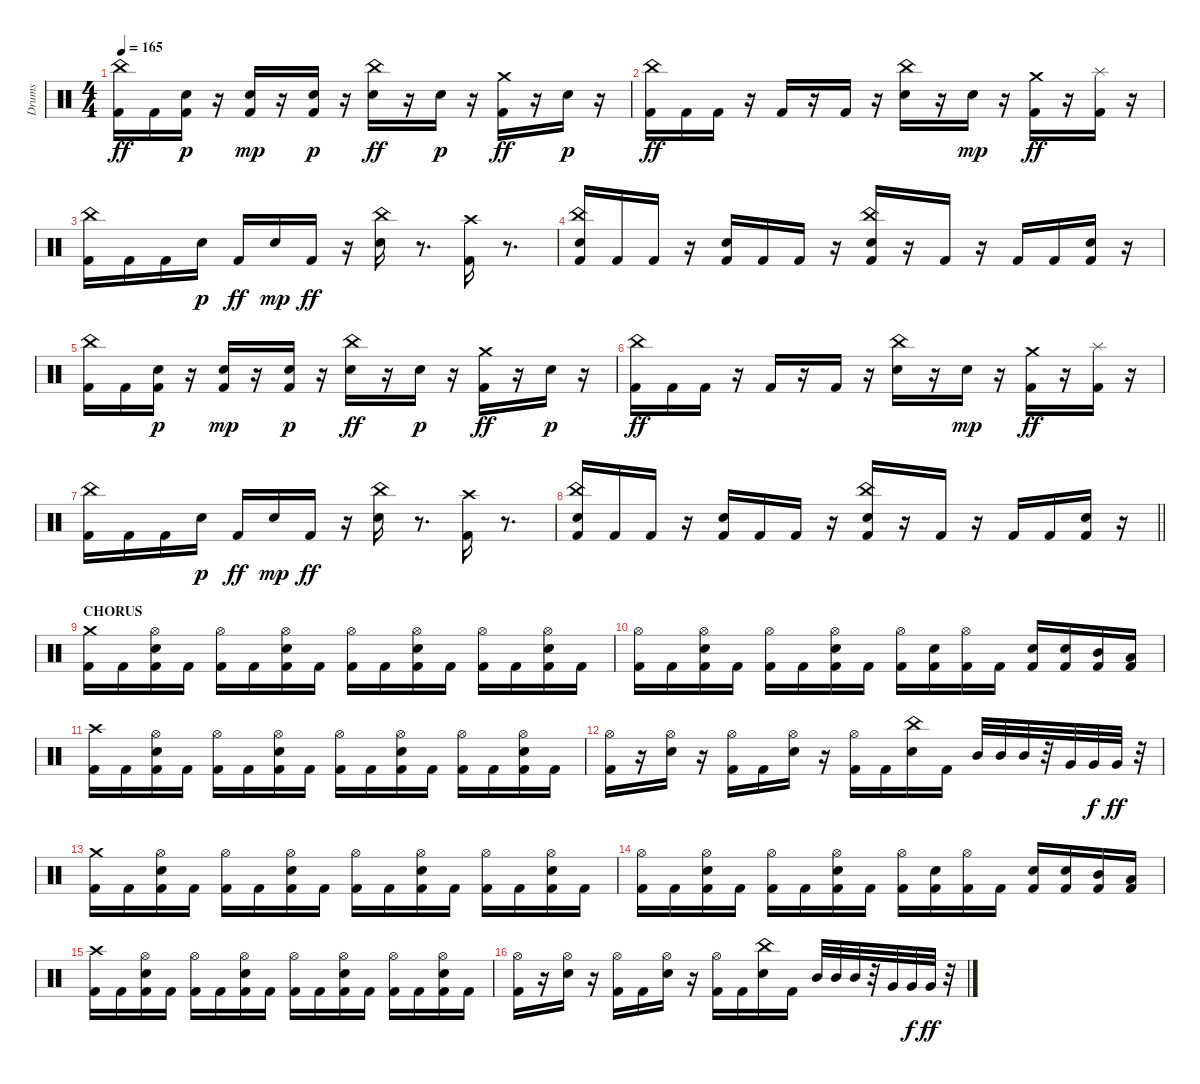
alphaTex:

\track ("Drums" "Drums") {instrument percussion}
\staff {score}
\articulation defaults
\ts (4 4)
\tempo 165
\clef neutral
\ks c
("Kick (hit) 2" "China (hit)").16{dy ff} "Kick (hit) 2".16 ("Kick (hit) 2" "Snare (hit) 2").16{dy p} r.16 ("Kick (hit) 2" "Snare (hit) 2").16{dy mp} r.16 ("Kick (hit) 2" "Snare (hit) 2").16{dy p} r.16 ("Snare (hit) 2" "China (hit)").16{dy ff} r.16 "Snare (hit) 2".16{dy p} r.16 ("Kick (hit) 2" "Crash medium (hit)").16{dy ff} r.16 "Snare (hit) 2".16{dy p} r.16 |
("Kick (hit) 2" "China (hit)").16{dy ff} "Kick (hit) 2".16 "Kick (hit) 2".16 r.16 "Kick (hit) 2".16 r.16 "Kick (hit) 2".16 r.16 ("Snare (hit) 2" "China (hit)").16 r.16 "Snare (hit) 2".16{dy mp} r.16 ("Kick (hit) 2" "Crash medium (hit)").16{dy ff} r.16 ("Kick (hit) 2" "Splash (hit)").16 r.16 |
("Kick (hit) 2" "China (hit)").16 "Kick (hit) 2".16 "Kick (hit) 2".16 "Snare (hit) 2".16{dy p} "Kick (hit) 2".16{dy ff} "Snare (hit) 2".16{dy mp} "Kick (hit) 2".16{dy ff} r.16 ("Snare (hit) 2" "China (hit)").16 r.8{d} ("Kick (hit) 2" "Crash high (hit)").16 r.8{d} |
("Kick (hit) 2" "Snare (hit) 2" "China (hit)").16 "Kick (hit) 2".16 "Kick (hit) 2".16 r.16 ("Kick (hit) 2" "Snare (hit) 2").16 "Kick (hit) 2".16 "Kick (hit) 2".16 r.16 ("Kick (hit) 2" "Snare (hit) 2" "China (hit)").16 r.16 "Kick (hit) 2".16 r.16 "Kick (hit) 2".16 "Kick (hit) 2".16 ("Kick (hit) 2" "Snare (hit) 2").16 r.16 |
("Kick (hit) 2" "China (hit)").16 "Kick (hit) 2".16 ("Kick (hit) 2" "Snare (hit) 2").16{dy p} r.16 ("Kick (hit) 2" "Snare (hit) 2").16{dy mp} r.16 ("Kick (hit) 2" "Snare (hit) 2").16{dy p} r.16 ("Snare (hit) 2" "China (hit)").16{dy ff} r.16 "Snare (hit) 2".16{dy p} r.16 ("Kick (hit) 2" "Crash medium (hit)").16{dy ff} r.16 "Snare (hit) 2".16{dy p} r.16 |
("Kick (hit) 2" "China (hit)").16{dy ff} "Kick (hit) 2".16 "Kick (hit) 2".16 r.16 "Kick (hit) 2".16 r.16 "Kick (hit) 2".16 r.16 ("Snare (hit) 2" "China (hit)").16 r.16 "Snare (hit) 2".16{dy mp} r.16 ("Kick (hit) 2" "Crash medium (hit)").16{dy ff} r.16 ("Kick (hit) 2" "Splash (hit)").16 r.16 |
("Kick (hit) 2" "China (hit)").16 "Kick (hit) 2".16 "Kick (hit) 2".16 "Snare (hit) 2".16{dy p} "Kick (hit) 2".16{dy ff} "Snare (hit) 2".16{dy mp} "Kick (hit) 2".16{dy ff} r.16 ("Snare (hit) 2" "China (hit)").16 r.8{d} ("Kick (hit) 2" "Crash high (hit)").16 r.8{d} |
\barLineRight lightlight
("Kick (hit) 2" "Snare (hit) 2" "China (hit)").16 "Kick (hit) 2".16 "Kick (hit) 2".16 r.16 ("Kick (hit) 2" "Snare (hit) 2").16 "Kick (hit) 2".16 "Kick (hit) 2".16 r.16 ("Kick (hit) 2" "Snare (hit) 2" "China (hit)").16 r.16 "Kick (hit) 2".16 r.16 "Kick (hit) 2".16 "Kick (hit) 2".16 ("Kick (hit) 2" "Snare (hit) 2").16 r.16 |
\section ("" "CHORUS")
("Kick (hit) 2" "Crash medium (hit)").16 "Kick (hit) 2".16 ("Kick (hit) 2" "Snare (hit) 2" "Hi-Hat (open)").16 "Kick (hit) 2".16 ("Kick (hit) 2" "Hi-Hat (open)").16 "Kick (hit) 2".16 ("Kick (hit) 2" "Snare (hit) 2" "Hi-Hat (open)").16 "Kick (hit) 2".16 ("Kick (hit) 2" "Hi-Hat (open)").16 "Kick (hit) 2".16 ("Kick (hit) 2" "Snare (hit) 2" "Hi-Hat (open)").16 "Kick (hit) 2".16 ("Kick (hit) 2" "Hi-Hat (open)").16 "Kick (hit) 2".16 ("Kick (hit) 2" "Snare (hit) 2" "Hi-Hat (open)").16 "Kick (hit) 2".16 |
("Kick (hit) 2" "Hi-Hat (open)").16 "Kick (hit) 2".16 ("Kick (hit) 2" "Snare (hit) 2" "Hi-Hat (open)").16 "Kick (hit) 2".16 ("Kick (hit) 2" "Hi-Hat (open)").16 "Kick (hit) 2".16 ("Kick (hit) 2" "Snare (hit) 2" "Hi-Hat (open)").16 "Kick (hit) 2".16 ("Kick (hit) 2" "Hi-Hat (open)").16 ("Kick (hit) 2" "Snare (hit) 2").16 ("Kick (hit) 2" "Hi-Hat (open)").16 "Kick (hit) 2".16 ("Kick (hit) 2" "Snare (hit) 2").16 ("Kick (hit) 2" "Snare (hit) 2").16 ("Kick (hit) 2" "Mid Tom (hit)").16 ("Kick (hit) 2" "Low Tom (hit)").16 |
("Kick (hit) 2" "Crash high (hit)").16 "Kick (hit) 2".16 ("Kick (hit) 2" "Snare (hit) 2" "Hi-Hat (open)").16 "Kick (hit) 2".16 ("Kick (hit) 2" "Hi-Hat (open)").16 "Kick (hit) 2".16 ("Kick (hit) 2" "Snare (hit) 2" "Hi-Hat (open)").16 "Kick (hit) 2".16 ("Kick (hit) 2" "Hi-Hat (open)").16 "Kick (hit) 2".16 ("Kick (hit) 2" "Snare (hit) 2" "Hi-Hat (open)").16 "Kick (hit) 2".16 ("Kick (hit) 2" "Hi-Hat (open)").16 "Kick (hit) 2".16 ("Kick (hit) 2" "Snare (hit) 2" "Hi-Hat (open)").16 "Kick (hit) 2".16 |
("Kick (hit) 2" "Hi-Hat (open)").16 r.16 ("Snare (hit) 2" "Hi-Hat (open)").16 r.16 ("Kick (hit) 2" "Hi-Hat (open)").16 "Kick (hit) 2".16 ("Snare (hit) 2" "Hi-Hat (open)").16 r.16 ("Kick (hit) 2" "Hi-Hat (open)").16 "Kick (hit) 2".16 ("Snare (hit) 2" "China (hit)").16 "Kick (hit) 2".16 "Mid Tom (hit)".32 "Mid Tom (hit)".32 "Mid Tom (hit)".32 r.32 "Very Low Tom (hit)".32 "Very Low Tom (hit)".32{dy f} "Very Low Tom (hit)".32{dy ff} r.32 |
("Kick (hit) 2" "Crash medium (hit)").16 "Kick (hit) 2".16 ("Kick (hit) 2" "Snare (hit) 2" "Hi-Hat (open)").16 "Kick (hit) 2".16 ("Kick (hit) 2" "Hi-Hat (open)").16 "Kick (hit) 2".16 ("Kick (hit) 2" "Snare (hit) 2" "Hi-Hat (open)").16 "Kick (hit) 2".16 ("Kick (hit) 2" "Hi-Hat (open)").16 "Kick (hit) 2".16 ("Kick (hit) 2" "Snare (hit) 2" "Hi-Hat (open)").16 "Kick (hit) 2".16 ("Kick (hit) 2" "Hi-Hat (open)").16 "Kick (hit) 2".16 ("Kick (hit) 2" "Snare (hit) 2" "Hi-Hat (open)").16 "Kick (hit) 2".16 |
("Kick (hit) 2" "Hi-Hat (open)").16 "Kick (hit) 2".16 ("Kick (hit) 2" "Snare (hit) 2" "Hi-Hat (open)").16 "Kick (hit) 2".16 ("Kick (hit) 2" "Hi-Hat (open)").16 "Kick (hit) 2".16 ("Kick (hit) 2" "Snare (hit) 2" "Hi-Hat (open)").16 "Kick (hit) 2".16 ("Kick (hit) 2" "Hi-Hat (open)").16 ("Kick (hit) 2" "Snare (hit) 2").16 ("Kick (hit) 2" "Hi-Hat (open)").16 "Kick (hit) 2".16 ("Kick (hit) 2" "Snare (hit) 2").16 ("Kick (hit) 2" "Snare (hit) 2").16 ("Kick (hit) 2" "Mid Tom (hit)").16 ("Kick (hit) 2" "Low Tom (hit)").16 |
("Kick (hit) 2" "Crash high (hit)").16 "Kick (hit) 2".16 ("Kick (hit) 2" "Snare (hit) 2" "Hi-Hat (open)").16 "Kick (hit) 2".16 ("Kick (hit) 2" "Hi-Hat (open)").16 "Kick (hit) 2".16 ("Kick (hit) 2" "Snare (hit) 2" "Hi-Hat (open)").16 "Kick (hit) 2".16 ("Kick (hit) 2" "Hi-Hat (open)").16 "Kick (hit) 2".16 ("Kick (hit) 2" "Snare (hit) 2" "Hi-Hat (open)").16 "Kick (hit) 2".16 ("Kick (hit) 2" "Hi-Hat (open)").16 "Kick (hit) 2".16 ("Kick (hit) 2" "Snare (hit) 2" "Hi-Hat (open)").16 "Kick (hit) 2".16 |
("Kick (hit) 2" "Hi-Hat (open)").16 r.16 ("Snare (hit) 2" "Hi-Hat (open)").16 r.16 ("Kick (hit) 2" "Hi-Hat (open)").16 "Kick (hit) 2".16 ("Snare (hit) 2" "Hi-Hat (open)").16 r.16 ("Kick (hit) 2" "Hi-Hat (open)").16 "Kick (hit) 2".16 ("Snare (hit) 2" "China (hit)").16 "Kick (hit) 2".16 "Mid Tom (hit)".32 "Mid Tom (hit)".32 "Mid Tom (hit)".32 r.32 "Very Low Tom (hit)".32 "Very Low Tom (hit)".32{dy f} "Very Low Tom (hit)".32{dy ff} r.32
